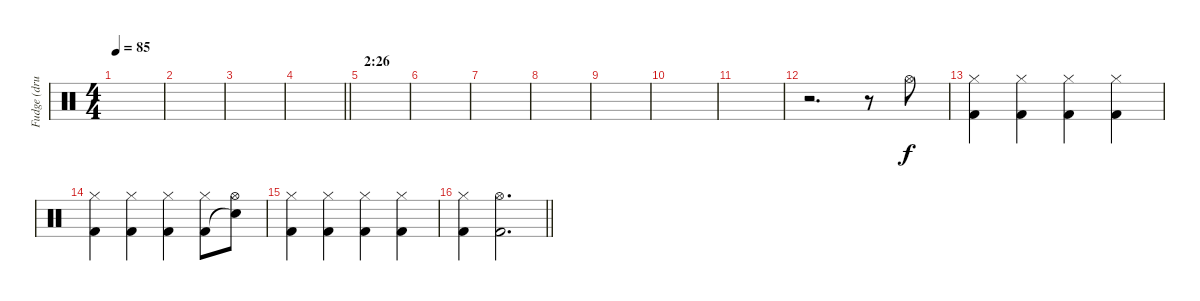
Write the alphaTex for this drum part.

\track ("Fudge (drums)" "Fudge (dru") {instrument percussion}
\staff {score}
\articulation defaults
\ts (4 4)
\tempo 85
\clef neutral
\ks c
|
|
|
\barLineRight lightlight
|
\section ("" "2:26")
|
|
|
|
|
|
|
r.2{d} r.8 "Hi-Hat (open)".8 |
("Kick (hit) 2" "Hi-Hat (closed)").4 ("Kick (hit) 2" "Hi-Hat (closed)").4 ("Kick (hit) 2" "Hi-Hat (closed)").4 ("Kick (hit) 2" "Hi-Hat (closed)").4 |
("Kick (hit) 2" "Hi-Hat (closed)").4 ("Kick (hit) 2" "Hi-Hat (closed)").4 ("Kick (hit) 2" "Hi-Hat (closed)").4 ("Kick (hit) 2" "Hi-Hat (closed)").8 ("Snare (hit)"{t} "Hi-Hat (open)").8 |
("Kick (hit) 2" "Hi-Hat (closed)").4 ("Kick (hit) 2" "Hi-Hat (closed)").4 ("Kick (hit) 2" "Hi-Hat (closed)").4 ("Kick (hit) 2" "Hi-Hat (closed)").4 |
\barLineRight lightlight
("Kick (hit) 2" "Hi-Hat (closed)").4 ("Kick (hit) 2" "Hi-Hat (open)").2{d}
